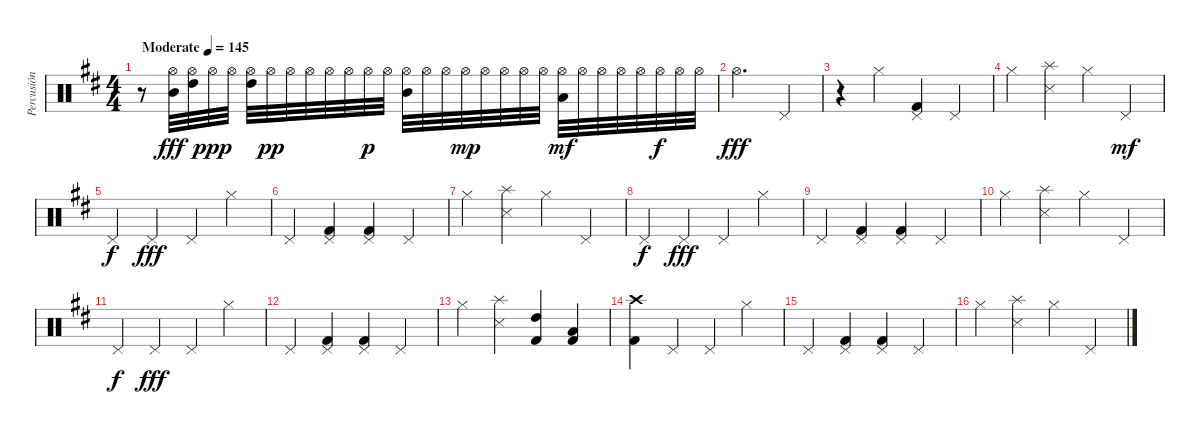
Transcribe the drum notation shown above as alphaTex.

\track ("Percusión" "Percusión") {instrument percussion}
\staff {score}
\articulation defaults
\ts (4 4)
\tempo (145 "Moderate")
\clef neutral
\ks d
r.8{dy fff} ("Hi-Hat (open)" "Mid Tom (hit)").32 ("Hi-Hat (open)" "High Tom (hit)").32 "Hi-Hat (open)".32{dy ppp} "Hi-Hat (open)".32 ("Hi-Hat (open)" "High Tom (hit)").32 "Hi-Hat (open)".32{dy pp} "Hi-Hat (open)".32 "Hi-Hat (open)".32 "Hi-Hat (open)".32 "Hi-Hat (open)".32 "Hi-Hat (open)".32{dy p} "Hi-Hat (open)".32 ("Hi-Hat (open)" "Mid Tom (hit)").32 "Hi-Hat (open)".32 "Hi-Hat (open)".32 "Hi-Hat (open)".32{dy mp} "Hi-Hat (open)".32 "Hi-Hat (open)".32 "Hi-Hat (open)".32 "Hi-Hat (open)".32 ("Hi-Hat (open)" "Low Tom (hit)").32{dy mf} "Hi-Hat (open)".32 "Hi-Hat (open)".32 "Hi-Hat (open)".32 "Hi-Hat (open)".32 "Hi-Hat (open)".32{dy f} "Hi-Hat (open)".32 "Hi-Hat (open)".32 |
"Hi-Hat (open)".2{d dy fff} "Pedal Hi-Hat (hit)".4 |
r.4 "Hi-Hat (closed)".4 ("Pedal Hi-Hat (hit)" "Kick (hit) 2").4 "Pedal Hi-Hat (hit)".4 |
"Hi-Hat (closed)".4 ("Splash (hit)" "Snare (side stick) 3").4{volume 16} "Hi-Hat (closed)".4 "Pedal Hi-Hat (hit)".4{dy mf} |
"Pedal Hi-Hat (hit)".4{dy f} "Pedal Hi-Hat (hit)".4{dy fff} "Pedal Hi-Hat (hit)".4 "Hi-Hat (closed)".4 |
"Pedal Hi-Hat (hit)".4 ("Pedal Hi-Hat (hit)" "Kick (hit) 2").4 ("Pedal Hi-Hat (hit)" "Kick (hit) 2").4 "Pedal Hi-Hat (hit)".4 |
"Hi-Hat (closed)".4 ("Splash (hit)" "Snare (side stick) 3").4{volume 16} "Hi-Hat (closed)".4 "Pedal Hi-Hat (hit)".4 |
"Pedal Hi-Hat (hit)".4{dy f} "Pedal Hi-Hat (hit)".4{dy fff} "Pedal Hi-Hat (hit)".4 "Hi-Hat (closed)".4 |
"Pedal Hi-Hat (hit)".4 ("Pedal Hi-Hat (hit)" "Kick (hit) 2").4 ("Pedal Hi-Hat (hit)" "Kick (hit) 2").4 "Pedal Hi-Hat (hit)".4 |
"Hi-Hat (closed)".4 ("Splash (hit)" "Snare (side stick) 3").4{volume 16} "Hi-Hat (closed)".4 "Pedal Hi-Hat (hit)".4 |
"Pedal Hi-Hat (hit)".4{dy f} "Pedal Hi-Hat (hit)".4{dy fff} "Pedal Hi-Hat (hit)".4 "Hi-Hat (closed)".4 |
"Pedal Hi-Hat (hit)".4 ("Pedal Hi-Hat (hit)" "Kick (hit) 2").4 ("Pedal Hi-Hat (hit)" "Kick (hit) 2").4 "Pedal Hi-Hat (hit)".4 |
"Hi-Hat (closed)".4 ("Splash (hit)" "Snare (side stick) 3").4{volume 16} ("High Tom (hit)" "Kick (hit) 2").4 ("Low Tom (hit)" "Kick (hit) 2").4 |
("Crash high (hit)" "Kick (hit) 2").4 "Pedal Hi-Hat (hit)".4 "Pedal Hi-Hat (hit)".4 "Hi-Hat (closed)".4 |
"Pedal Hi-Hat (hit)".4 ("Pedal Hi-Hat (hit)" "Kick (hit) 2").4 ("Pedal Hi-Hat (hit)" "Kick (hit) 2").4 "Pedal Hi-Hat (hit)".4 |
"Hi-Hat (closed)".4 ("Splash (hit)" "Snare (side stick) 3").4{volume 16} "Hi-Hat (closed)".4 "Pedal Hi-Hat (hit)".4
